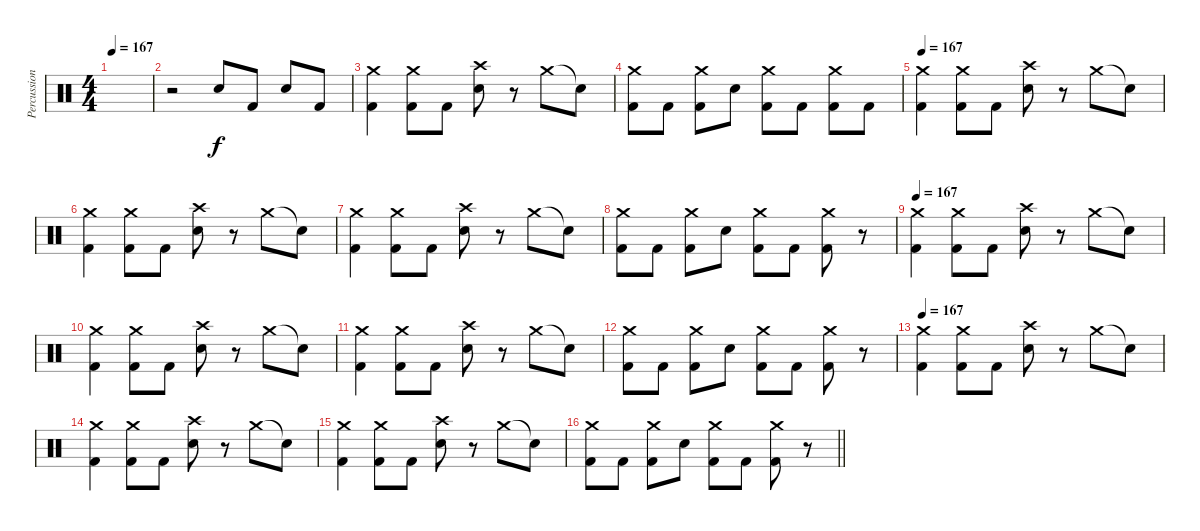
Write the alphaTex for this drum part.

\track ("Percussion" "Percussion") {instrument percussion}
\staff {score}
\articulation defaults
\ts (4 4)
\section ("" "")
\tempo 167
\clef neutral
\ks c
|
r.2 "Electric Snare (hit)".8 "Kick (hit) 2".8 "Electric Snare (hit)".8 "Kick (hit) 2".8 |
("Crash medium (hit)" "Kick (hit) 2").4 ("Crash medium (hit)" "Kick (hit) 2").8 "Kick (hit) 2".8 ("Crash high (hit)" "Electric Snare (hit)").8 r.8 "Crash medium (hit)".8 "Snare (hit)"{t}.8 |
("Crash medium (hit)" "Kick (hit) 2").8 "Kick (hit) 2".8 ("Crash medium (hit)" "Kick (hit) 2").8 "Electric Snare (hit)".8 ("Crash medium (hit)" "Kick (hit) 2").8 "Kick (hit) 2".8 ("Crash medium (hit)" "Kick (hit) 2").8 "Kick (hit) 2".8 |
\tempo 167
("Crash medium (hit)" "Kick (hit) 2").4 ("Crash medium (hit)" "Kick (hit) 2").8 "Kick (hit) 2".8 ("Crash high (hit)" "Electric Snare (hit)").8 r.8 "Crash medium (hit)".8 "Snare (hit)"{t}.8 |
("Crash medium (hit)" "Kick (hit) 2").4 ("Crash medium (hit)" "Kick (hit) 2").8 "Kick (hit) 2".8 ("Crash high (hit)" "Electric Snare (hit)").8 r.8 "Crash medium (hit)".8 "Snare (hit)"{t}.8 |
("Crash medium (hit)" "Kick (hit) 2").4 ("Crash medium (hit)" "Kick (hit) 2").8 "Kick (hit) 2".8 ("Crash high (hit)" "Electric Snare (hit)").8 r.8 "Crash medium (hit)".8 "Snare (hit)"{t}.8 |
("Crash medium (hit)" "Kick (hit) 2").8 "Kick (hit) 2".8 ("Crash medium (hit)" "Kick (hit) 2").8 "Electric Snare (hit)".8 ("Crash medium (hit)" "Kick (hit) 2").8 "Kick (hit) 2".8 ("Crash medium (hit)" "Kick (hit) 2").8 r.8 |
\tempo 167
("Crash medium (hit)" "Kick (hit) 2").4 ("Crash medium (hit)" "Kick (hit) 2").8 "Kick (hit) 2".8 ("Crash high (hit)" "Electric Snare (hit)").8 r.8 "Crash medium (hit)".8 "Snare (hit)"{t}.8 |
("Crash medium (hit)" "Kick (hit) 2").4 ("Crash medium (hit)" "Kick (hit) 2").8 "Kick (hit) 2".8 ("Crash high (hit)" "Electric Snare (hit)").8 r.8 "Crash medium (hit)".8 "Snare (hit)"{t}.8 |
("Crash medium (hit)" "Kick (hit) 2").4 ("Crash medium (hit)" "Kick (hit) 2").8 "Kick (hit) 2".8 ("Crash high (hit)" "Electric Snare (hit)").8 r.8 "Crash medium (hit)".8 "Snare (hit)"{t}.8 |
("Crash medium (hit)" "Kick (hit) 2").8 "Kick (hit) 2".8 ("Crash medium (hit)" "Kick (hit) 2").8 "Electric Snare (hit)".8 ("Crash medium (hit)" "Kick (hit) 2").8 "Kick (hit) 2".8 ("Crash medium (hit)" "Kick (hit) 2").8 r.8 |
\tempo 167
("Crash medium (hit)" "Kick (hit) 2").4 ("Crash medium (hit)" "Kick (hit) 2").8 "Kick (hit) 2".8 ("Crash high (hit)" "Electric Snare (hit)").8 r.8 "Crash medium (hit)".8 "Snare (hit)"{t}.8 |
("Crash medium (hit)" "Kick (hit) 2").4 ("Crash medium (hit)" "Kick (hit) 2").8 "Kick (hit) 2".8 ("Crash high (hit)" "Electric Snare (hit)").8 r.8 "Crash medium (hit)".8 "Snare (hit)"{t}.8 |
("Crash medium (hit)" "Kick (hit) 2").4 ("Crash medium (hit)" "Kick (hit) 2").8 "Kick (hit) 2".8 ("Crash high (hit)" "Electric Snare (hit)").8 r.8 "Crash medium (hit)".8 "Snare (hit)"{t}.8 |
\barLineRight lightlight
("Crash medium (hit)" "Kick (hit) 2").8 "Kick (hit) 2".8 ("Crash medium (hit)" "Kick (hit) 2").8 "Electric Snare (hit)".8 ("Crash medium (hit)" "Kick (hit) 2").8 "Kick (hit) 2".8 ("Crash medium (hit)" "Kick (hit) 2").8 r.8
